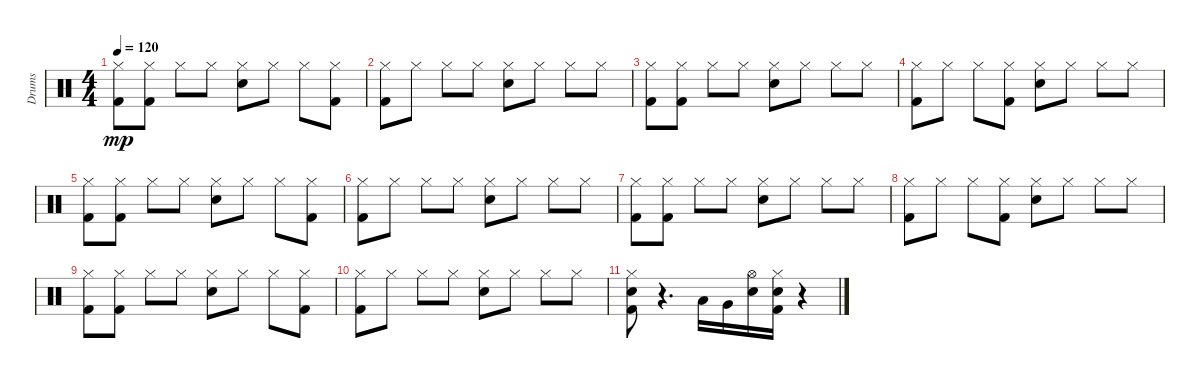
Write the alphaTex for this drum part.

\track ("Drums" "Drums") {instrument percussion}
\staff {score}
\articulation defaults
\ts (4 4)
\tempo 120
\clef neutral
\ks c
("Hi-Hat (closed)" "Kick (hit) 2").8{dy mp} ("Hi-Hat (closed)" "Kick (hit) 2").8 "Hi-Hat (closed)".8 "Hi-Hat (closed)".8 ("Hi-Hat (closed)" "Snare (hit) 2").8 "Hi-Hat (closed)".8 "Hi-Hat (closed)".8 ("Hi-Hat (closed)" "Kick (hit) 2").8 |
("Hi-Hat (closed)" "Kick (hit) 2").8 "Hi-Hat (closed)".8 "Hi-Hat (closed)".8 "Hi-Hat (closed)".8 ("Hi-Hat (closed)" "Snare (hit) 2").8 "Hi-Hat (closed)".8 "Hi-Hat (closed)".8 "Hi-Hat (closed)".8 |
("Hi-Hat (closed)" "Kick (hit) 2").8 ("Hi-Hat (closed)" "Kick (hit) 2").8 "Hi-Hat (closed)".8 "Hi-Hat (closed)".8 ("Hi-Hat (closed)" "Snare (hit) 2").8 "Hi-Hat (closed)".8 "Hi-Hat (closed)".8 "Hi-Hat (closed)".8 |
("Hi-Hat (closed)" "Kick (hit) 2").8 "Hi-Hat (closed)".8 "Hi-Hat (closed)".8 ("Hi-Hat (closed)" "Kick (hit) 2").8 ("Hi-Hat (closed)" "Snare (hit) 2").8 "Hi-Hat (closed)".8 "Hi-Hat (closed)".8 "Hi-Hat (closed)".8 |
("Hi-Hat (closed)" "Kick (hit) 2").8 ("Hi-Hat (closed)" "Kick (hit) 2").8 "Hi-Hat (closed)".8 "Hi-Hat (closed)".8 ("Hi-Hat (closed)" "Snare (hit) 2").8 "Hi-Hat (closed)".8 "Hi-Hat (closed)".8 ("Hi-Hat (closed)" "Kick (hit) 2").8 |
("Hi-Hat (closed)" "Kick (hit) 2").8 "Hi-Hat (closed)".8 "Hi-Hat (closed)".8 "Hi-Hat (closed)".8 ("Hi-Hat (closed)" "Snare (hit) 2").8 "Hi-Hat (closed)".8 "Hi-Hat (closed)".8 "Hi-Hat (closed)".8 |
("Hi-Hat (closed)" "Kick (hit) 2").8 ("Hi-Hat (closed)" "Kick (hit) 2").8 "Hi-Hat (closed)".8 "Hi-Hat (closed)".8 ("Hi-Hat (closed)" "Snare (hit) 2").8 "Hi-Hat (closed)".8 "Hi-Hat (closed)".8 "Hi-Hat (closed)".8 |
("Hi-Hat (closed)" "Kick (hit) 2").8 "Hi-Hat (closed)".8 "Hi-Hat (closed)".8 ("Hi-Hat (closed)" "Kick (hit) 2").8 ("Hi-Hat (closed)" "Snare (hit) 2").8 "Hi-Hat (closed)".8 "Hi-Hat (closed)".8 "Hi-Hat (closed)".8 |
("Hi-Hat (closed)" "Kick (hit) 2").8{volume 15} ("Hi-Hat (closed)" "Kick (hit) 2").8{volume 14} "Hi-Hat (closed)".8{volume 13} "Hi-Hat (closed)".8{volume 12} ("Hi-Hat (closed)" "Snare (hit) 2").8{volume 11} "Hi-Hat (closed)".8{volume 10} "Hi-Hat (closed)".8{volume 9} ("Hi-Hat (closed)" "Kick (hit) 2").8{volume 8} |
("Hi-Hat (closed)" "Kick (hit) 2").8{volume 8} "Hi-Hat (closed)".8{volume 7} "Hi-Hat (closed)".8{volume 6} "Hi-Hat (closed)".8{volume 5} ("Hi-Hat (closed)" "Snare (hit) 2").8{volume 4} "Hi-Hat (closed)".8{volume 3} "Hi-Hat (closed)".8{volume 2} "Hi-Hat (closed)".8{volume 1} |
("Hi-Hat (closed)" "Kick (hit) 2" "Snare (hit) 2").8{volume 0} r.4{d} "Low Tom (hit)".16 "Very Low Tom (hit)".16 ("Hi-Hat (open)" "Snare (hit) 2").16 ("Hi-Hat (closed)" "Kick (hit) 2" "Snare (hit) 2").16 r.4
